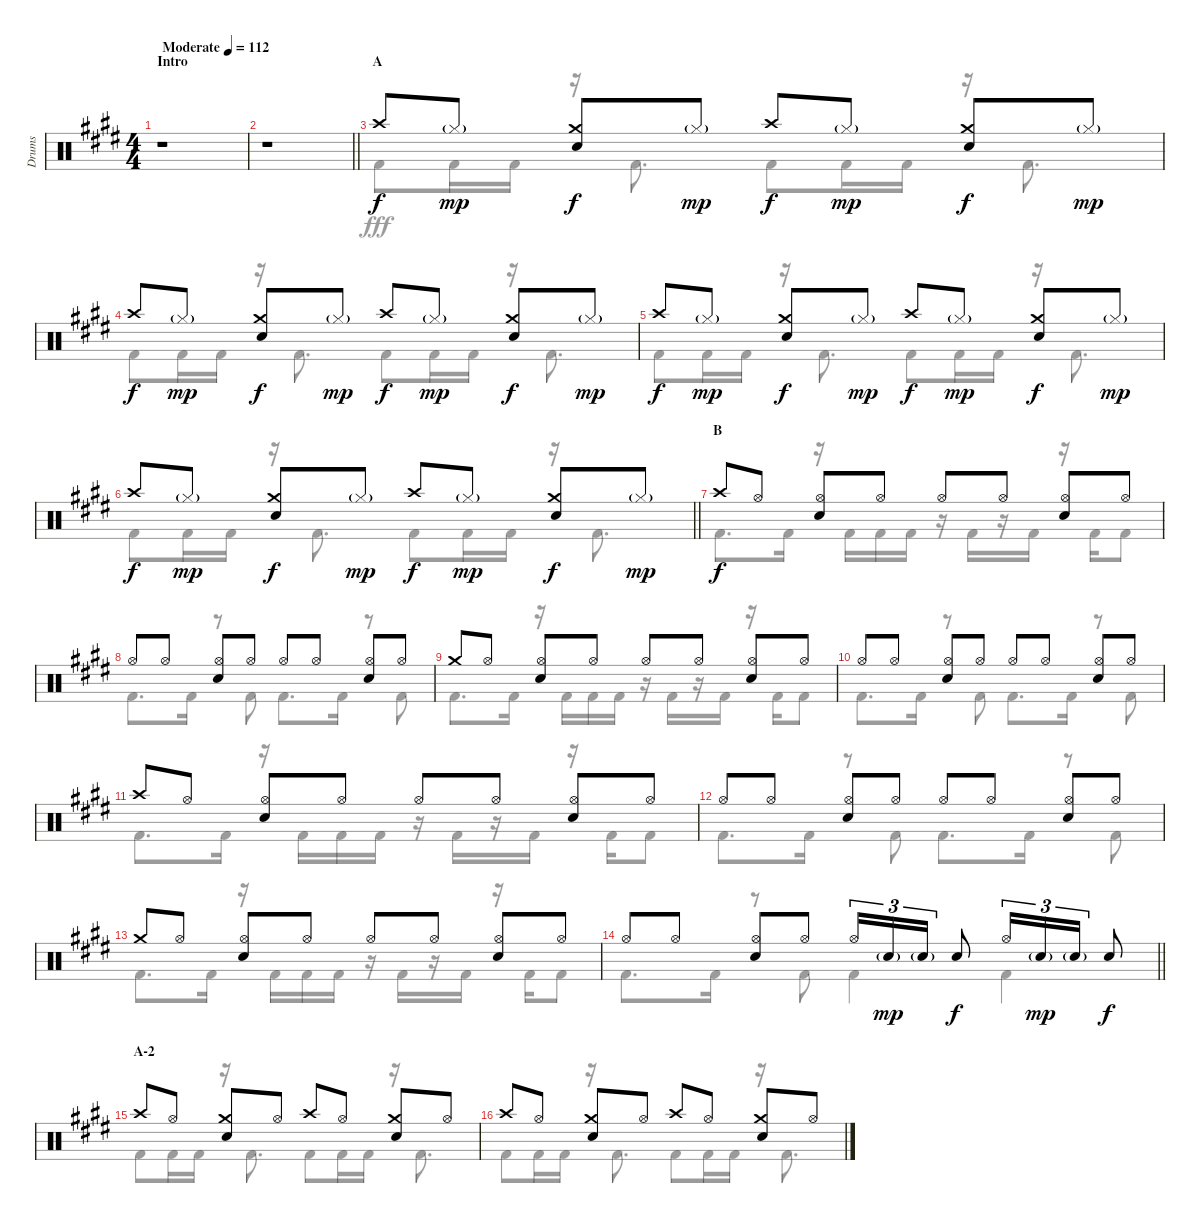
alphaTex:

\track ("Drums" "Drums") {instrument percussion}
\staff {score}
\articulation defaults
\voice
\ts (4 4)
\section ("" "Intro")
\tempo (112 "Moderate")
\clef neutral
\ks e
r.1{dy f} |
\barLineRight lightlight
r.1 |
\section ("" "A")
"Crash high (hit)".8 "Hi-Hat (closed)"{g}.8{dy mp} ("Crash medium (hit)" "Snare (hit) 2").8{dy f} "Hi-Hat (closed)"{g}.8{dy mp} "Crash high (hit)".8{dy f} "Hi-Hat (closed)"{g}.8{dy mp} ("Crash medium (hit)" "Snare (hit) 2").8{dy f} "Hi-Hat (closed)"{g}.8{dy mp} |
"Crash high (hit)".8{dy f} "Hi-Hat (closed)"{g}.8{dy mp} ("Crash medium (hit)" "Snare (hit) 2").8{dy f} "Hi-Hat (closed)"{g}.8{dy mp} "Crash high (hit)".8{dy f} "Hi-Hat (closed)"{g}.8{dy mp} ("Crash medium (hit)" "Snare (hit) 2").8{dy f} "Hi-Hat (closed)"{g}.8{dy mp} |
"Crash high (hit)".8{dy f} "Hi-Hat (closed)"{g}.8{dy mp} ("Crash medium (hit)" "Snare (hit) 2").8{dy f} "Hi-Hat (closed)"{g}.8{dy mp} "Crash high (hit)".8{dy f} "Hi-Hat (closed)"{g}.8{dy mp} ("Crash medium (hit)" "Snare (hit) 2").8{dy f} "Hi-Hat (closed)"{g}.8{dy mp} |
\barLineRight lightlight "Crash high (hit)".8{dy f} "Hi-Hat (closed)"{g}.8{dy mp}
("Crash medium (hit)" "Snare (hit) 2").8{dy f} "Hi-Hat (closed)"{g}.8{dy mp} "Crash high (hit)".8{dy f} "Hi-Hat (closed)"{g}.8{dy mp} ("Crash medium (hit)" "Snare (hit) 2").8{dy f} "Hi-Hat (closed)"{g}.8{dy mp} |
\section ("" "B")
"Crash high (hit)".8{dy f} "Hi-Hat (open)".8 ("Hi-Hat (open)" "Snare (hit) 2").8 "Hi-Hat (open)".8 "Hi-Hat (open)".8 "Hi-Hat (open)".8 ("Hi-Hat (open)" "Snare (hit) 2").8 "Hi-Hat (open)".8 |
"Hi-Hat (open)".8 "Hi-Hat (open)".8 ("Hi-Hat (open)" "Snare (hit) 2").8 "Hi-Hat (open)".8 "Hi-Hat (open)".8 "Hi-Hat (open)".8 ("Hi-Hat (open)" "Snare (hit) 2").8 "Hi-Hat (open)".8 |
"Crash medium (hit)".8 "Hi-Hat (open)".8 ("Hi-Hat (open)" "Snare (hit) 2").8 "Hi-Hat (open)".8 "Hi-Hat (open)".8 "Hi-Hat (open)".8 ("Hi-Hat (open)" "Snare (hit) 2").8 "Hi-Hat (open)".8 |
"Hi-Hat (open)".8 "Hi-Hat (open)".8 ("Hi-Hat (open)" "Snare (hit) 2").8 "Hi-Hat (open)".8 "Hi-Hat (open)".8 "Hi-Hat (open)".8 ("Hi-Hat (open)" "Snare (hit) 2").8 "Hi-Hat (open)".8 |
"Crash high (hit)".8 "Hi-Hat (open)".8 ("Hi-Hat (open)" "Snare (hit) 2").8 "Hi-Hat (open)".8 "Hi-Hat (open)".8 "Hi-Hat (open)".8 ("Hi-Hat (open)" "Snare (hit) 2").8 "Hi-Hat (open)".8 |
"Hi-Hat (open)".8 "Hi-Hat (open)".8 ("Hi-Hat (open)" "Snare (hit) 2").8 "Hi-Hat (open)".8 "Hi-Hat (open)".8 "Hi-Hat (open)".8 ("Hi-Hat (open)" "Snare (hit) 2").8 "Hi-Hat (open)".8 |
"Crash medium (hit)".8 "Hi-Hat (open)".8 ("Hi-Hat (open)" "Snare (hit) 2").8 "Hi-Hat (open)".8 "Hi-Hat (open)".8 "Hi-Hat (open)".8 ("Hi-Hat (open)" "Snare (hit) 2").8 "Hi-Hat (open)".8 |
\barLineRight lightlight "Hi-Hat (open)".8 "Hi-Hat (open)".8
("Hi-Hat (open)" "Snare (hit) 2").8 "Hi-Hat (open)".8 "Hi-Hat (open)".16{tu (3 2)} "Snare (hit) 2"{g}.16{tu (3 2) dy mp} "Snare (hit) 2"{g}.16{tu (3 2)} "Snare (hit) 2".8{dy f} "Hi-Hat (open)".16{tu (3 2)} "Snare (hit) 2"{g}.16{tu (3 2) dy mp} "Snare (hit) 2"{g}.16{tu (3 2)} "Snare (hit) 2".8{dy f} |
\section ("" "A-2")
"Crash high (hit)".8 "Hi-Hat (open)".8 ("Crash medium (hit)" "Snare (hit) 2").8 "Hi-Hat (open)".8 "Crash high (hit)".8 "Hi-Hat (open)".8 ("Crash medium (hit)" "Snare (hit) 2").8 "Hi-Hat (open)".8 |
"Crash high (hit)".8 "Hi-Hat (open)".8 ("Crash medium (hit)" "Snare (hit) 2").8 "Hi-Hat (open)".8 "Crash high (hit)".8 "Hi-Hat (open)".8 ("Crash medium (hit)" "Snare (hit) 2").8 "Hi-Hat (open)".8
\voice
\clef neutral
\ottava regular
\simile none
\ks e
r.1{dy fff} |
\barLineRight lightlight
r.1 |
"Kick (hit) 2".8 "Kick (hit) 2".16 "Kick (hit) 2".16 r.16 "Kick (hit) 2".8{d} "Kick (hit) 2".8 "Kick (hit) 2".16 "Kick (hit) 2".16 r.16 "Kick (hit) 2".8{d} |
"Kick (hit) 2".8 "Kick (hit) 2".16 "Kick (hit) 2".16 r.16 "Kick (hit) 2".8{d} "Kick (hit) 2".8 "Kick (hit) 2".16 "Kick (hit) 2".16 r.16 "Kick (hit) 2".8{d} |
"Kick (hit) 2".8 "Kick (hit) 2".16 "Kick (hit) 2".16 r.16 "Kick (hit) 2".8{d} "Kick (hit) 2".8 "Kick (hit) 2".16 "Kick (hit) 2".16 r.16 "Kick (hit) 2".8{d} |
\barLineRight lightlight "Kick (hit) 2".8 "Kick (hit) 2".16 "Kick (hit) 2".16
r.16 "Kick (hit) 2".8{d} "Kick (hit) 2".8 "Kick (hit) 2".16 "Kick (hit) 2".16 r.16 "Kick (hit) 2".8{d} |
"Kick (hit) 2".8{d} "Kick (hit) 2".16 r.16 "Kick (hit) 2".16 "Kick (hit) 2".16 "Kick (hit) 2".16 r.16 "Kick (hit) 2".16 r.16 "Kick (hit) 2".16 r.16 "Kick (hit) 2".16 "Kick (hit) 2".8 |
"Kick (hit) 2".8{d} "Kick (hit) 2".16 r.8 "Kick (hit) 2".8 "Kick (hit) 2".8{d} "Kick (hit) 2".16 r.8 "Kick (hit) 2".8 |
"Kick (hit) 2".8{d} "Kick (hit) 2".16 r.16 "Kick (hit) 2".16 "Kick (hit) 2".16 "Kick (hit) 2".16 r.16 "Kick (hit) 2".16 r.16 "Kick (hit) 2".16 r.16 "Kick (hit) 2".16 "Kick (hit) 2".8 |
"Kick (hit) 2".8{d} "Kick (hit) 2".16 r.8 "Kick (hit) 2".8 "Kick (hit) 2".8{d} "Kick (hit) 2".16 r.8 "Kick (hit) 2".8 |
"Kick (hit) 2".8{d} "Kick (hit) 2".16 r.16 "Kick (hit) 2".16 "Kick (hit) 2".16 "Kick (hit) 2".16 r.16 "Kick (hit) 2".16 r.16 "Kick (hit) 2".16 r.16 "Kick (hit) 2".16 "Kick (hit) 2".8 |
"Kick (hit) 2".8{d} "Kick (hit) 2".16 r.8 "Kick (hit) 2".8 "Kick (hit) 2".8{d} "Kick (hit) 2".16 r.8 "Kick (hit) 2".8 |
"Kick (hit) 2".8{d} "Kick (hit) 2".16 r.16 "Kick (hit) 2".16 "Kick (hit) 2".16 "Kick (hit) 2".16 r.16 "Kick (hit) 2".16 r.16 "Kick (hit) 2".16 r.16 "Kick (hit) 2".16 "Kick (hit) 2".8 |
\barLineRight lightlight "Kick (hit) 2".8{d} "Kick (hit) 2".16
r.8 "Kick (hit) 2".8 "Kick (hit) 2".4 "Kick (hit) 2".4 |
"Kick (hit) 2".8 "Kick (hit) 2".16 "Kick (hit) 2".16 r.16 "Kick (hit) 2".8{d} "Kick (hit) 2".8 "Kick (hit) 2".16 "Kick (hit) 2".16 r.16 "Kick (hit) 2".8{d} |
"Kick (hit) 2".8 "Kick (hit) 2".16 "Kick (hit) 2".16 r.16 "Kick (hit) 2".8{d} "Kick (hit) 2".8 "Kick (hit) 2".16 "Kick (hit) 2".16 r.16 "Kick (hit) 2".8{d}
